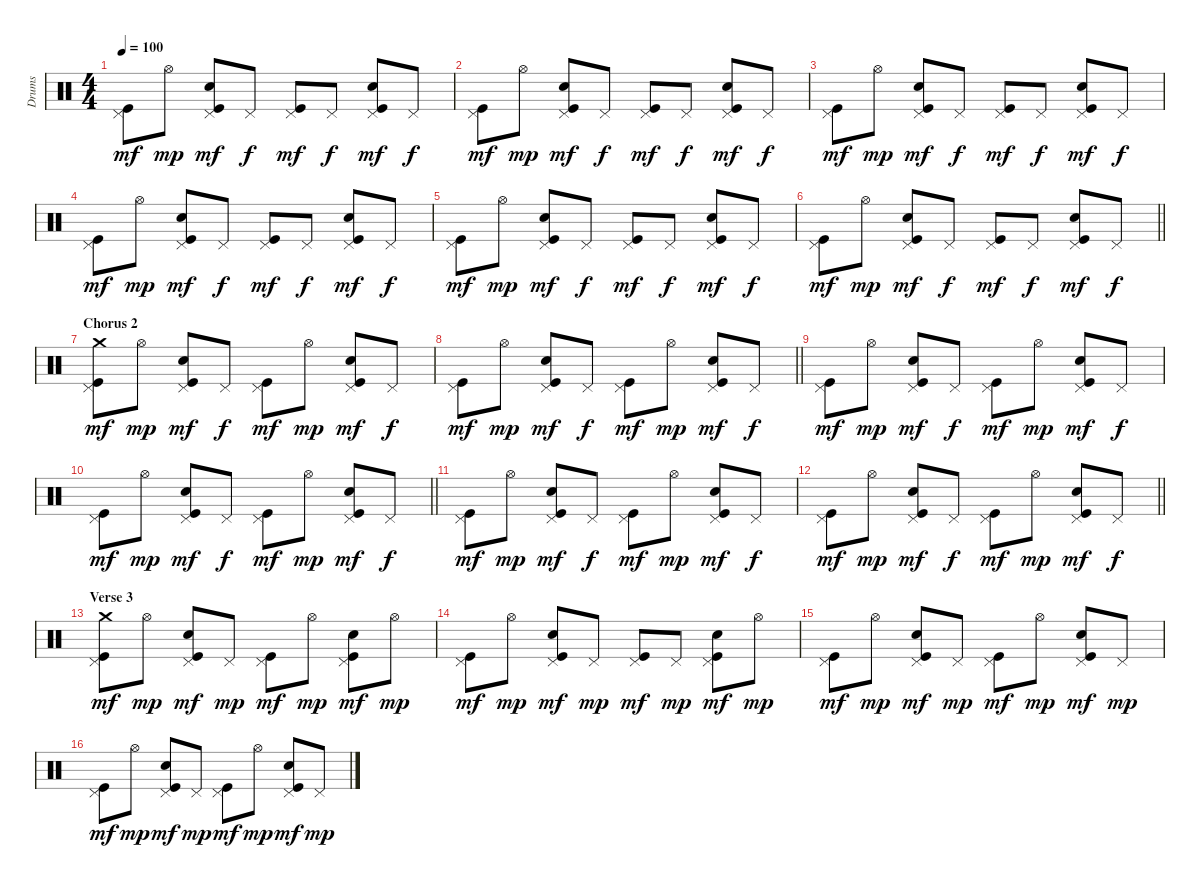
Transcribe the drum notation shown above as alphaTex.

\track ("Drums" "Drums") {instrument percussion}
\staff {score}
\articulation defaults
\ts (4 4)
\tempo 100
\clef neutral
\ks c
("Pedal Hi-Hat (hit)" "Kick (hit)").8{dy mf} "Hi-Hat (open)".8{dy mp} ("Pedal Hi-Hat (hit)" "Electric Snare (hit)" "Kick (hit)").8{dy mf} "Pedal Hi-Hat (hit)".8{dy f} ("Pedal Hi-Hat (hit)" "Kick (hit)").8{dy mf} "Pedal Hi-Hat (hit)".8{dy f} ("Pedal Hi-Hat (hit)" "Electric Snare (hit)" "Kick (hit)").8{dy mf} "Pedal Hi-Hat (hit)".8{dy f} |
("Pedal Hi-Hat (hit)" "Kick (hit)").8{dy mf} "Hi-Hat (open)".8{dy mp} ("Pedal Hi-Hat (hit)" "Electric Snare (hit)" "Kick (hit)").8{dy mf} "Pedal Hi-Hat (hit)".8{dy f} ("Pedal Hi-Hat (hit)" "Kick (hit)").8{dy mf} "Pedal Hi-Hat (hit)".8{dy f} ("Pedal Hi-Hat (hit)" "Electric Snare (hit)" "Kick (hit)").8{dy mf} "Pedal Hi-Hat (hit)".8{dy f} |
("Pedal Hi-Hat (hit)" "Kick (hit)").8{dy mf} "Hi-Hat (open)".8{dy mp} ("Pedal Hi-Hat (hit)" "Electric Snare (hit)" "Kick (hit)").8{dy mf} "Pedal Hi-Hat (hit)".8{dy f} ("Pedal Hi-Hat (hit)" "Kick (hit)").8{dy mf} "Pedal Hi-Hat (hit)".8{dy f} ("Pedal Hi-Hat (hit)" "Electric Snare (hit)" "Kick (hit)").8{dy mf} "Pedal Hi-Hat (hit)".8{dy f} |
("Pedal Hi-Hat (hit)" "Kick (hit)").8{dy mf} "Hi-Hat (open)".8{dy mp} ("Pedal Hi-Hat (hit)" "Electric Snare (hit)" "Kick (hit)").8{dy mf} "Pedal Hi-Hat (hit)".8{dy f} ("Pedal Hi-Hat (hit)" "Kick (hit)").8{dy mf} "Pedal Hi-Hat (hit)".8{dy f} ("Pedal Hi-Hat (hit)" "Electric Snare (hit)" "Kick (hit)").8{dy mf} "Pedal Hi-Hat (hit)".8{dy f} |
("Pedal Hi-Hat (hit)" "Kick (hit)").8{dy mf} "Hi-Hat (open)".8{dy mp} ("Pedal Hi-Hat (hit)" "Electric Snare (hit)" "Kick (hit)").8{dy mf} "Pedal Hi-Hat (hit)".8{dy f} ("Pedal Hi-Hat (hit)" "Kick (hit)").8{dy mf} "Pedal Hi-Hat (hit)".8{dy f} ("Pedal Hi-Hat (hit)" "Electric Snare (hit)" "Kick (hit)").8{dy mf} "Pedal Hi-Hat (hit)".8{dy f} |
\barLineRight lightlight
("Pedal Hi-Hat (hit)" "Kick (hit)").8{dy mf} "Hi-Hat (open)".8{dy mp} ("Pedal Hi-Hat (hit)" "Electric Snare (hit)" "Kick (hit)").8{dy mf} "Pedal Hi-Hat (hit)".8{dy f} ("Pedal Hi-Hat (hit)" "Kick (hit)").8{dy mf} "Pedal Hi-Hat (hit)".8{dy f} ("Pedal Hi-Hat (hit)" "Electric Snare (hit)" "Kick (hit)").8{dy mf} "Pedal Hi-Hat (hit)".8{dy f} |
\section ("" "Chorus 2")
("Pedal Hi-Hat (hit)" "Crash medium (hit)" "Kick (hit)").8{dy mf} "Hi-Hat (open)".8{dy mp} ("Pedal Hi-Hat (hit)" "Electric Snare (hit)" "Kick (hit)").8{dy mf} "Pedal Hi-Hat (hit)".8{dy f} ("Pedal Hi-Hat (hit)" "Kick (hit)").8{dy mf} "Hi-Hat (open)".8{dy mp} ("Pedal Hi-Hat (hit)" "Electric Snare (hit)" "Kick (hit)").8{dy mf} "Pedal Hi-Hat (hit)".8{dy f} |
\barLineRight lightlight
("Pedal Hi-Hat (hit)" "Kick (hit)").8{dy mf} "Hi-Hat (open)".8{dy mp} ("Pedal Hi-Hat (hit)" "Electric Snare (hit)" "Kick (hit)").8{dy mf} "Pedal Hi-Hat (hit)".8{dy f} ("Pedal Hi-Hat (hit)" "Kick (hit)").8{dy mf} "Hi-Hat (open)".8{dy mp} ("Pedal Hi-Hat (hit)" "Electric Snare (hit)" "Kick (hit)").8{dy mf} "Pedal Hi-Hat (hit)".8{dy f} |
("Pedal Hi-Hat (hit)" "Kick (hit)").8{dy mf} "Hi-Hat (open)".8{dy mp} ("Pedal Hi-Hat (hit)" "Electric Snare (hit)" "Kick (hit)").8{dy mf} "Pedal Hi-Hat (hit)".8{dy f} ("Pedal Hi-Hat (hit)" "Kick (hit)").8{dy mf} "Hi-Hat (open)".8{dy mp} ("Pedal Hi-Hat (hit)" "Electric Snare (hit)" "Kick (hit)").8{dy mf} "Pedal Hi-Hat (hit)".8{dy f} |
\barLineRight lightlight
("Pedal Hi-Hat (hit)" "Kick (hit)").8{dy mf} "Hi-Hat (open)".8{dy mp} ("Pedal Hi-Hat (hit)" "Electric Snare (hit)" "Kick (hit)").8{dy mf} "Pedal Hi-Hat (hit)".8{dy f} ("Pedal Hi-Hat (hit)" "Kick (hit)").8{dy mf} "Hi-Hat (open)".8{dy mp} ("Pedal Hi-Hat (hit)" "Electric Snare (hit)" "Kick (hit)").8{dy mf} "Pedal Hi-Hat (hit)".8{dy f} |
("Pedal Hi-Hat (hit)" "Kick (hit)").8{dy mf} "Hi-Hat (open)".8{dy mp} ("Pedal Hi-Hat (hit)" "Electric Snare (hit)" "Kick (hit)").8{dy mf} "Pedal Hi-Hat (hit)".8{dy f} ("Pedal Hi-Hat (hit)" "Kick (hit)").8{dy mf} "Hi-Hat (open)".8{dy mp} ("Pedal Hi-Hat (hit)" "Electric Snare (hit)" "Kick (hit)").8{dy mf} "Pedal Hi-Hat (hit)".8{dy f} |
\barLineRight lightlight
("Pedal Hi-Hat (hit)" "Kick (hit)").8{dy mf} "Hi-Hat (open)".8{dy mp} ("Pedal Hi-Hat (hit)" "Electric Snare (hit)" "Kick (hit)").8{dy mf} "Pedal Hi-Hat (hit)".8{dy f} ("Pedal Hi-Hat (hit)" "Kick (hit)").8{dy mf} "Hi-Hat (open)".8{dy mp} ("Pedal Hi-Hat (hit)" "Electric Snare (hit)" "Kick (hit)").8{dy mf} "Pedal Hi-Hat (hit)".8{dy f} |
\section ("" "Verse 3")
("Pedal Hi-Hat (hit)" "Crash medium (hit)" "Kick (hit)").8{dy mf} "Hi-Hat (open)".8{dy mp} ("Pedal Hi-Hat (hit)" "Electric Snare (hit)" "Kick (hit)").8{dy mf} "Pedal Hi-Hat (hit)".8{dy mp} ("Pedal Hi-Hat (hit)" "Kick (hit)").8{dy mf} "Hi-Hat (open)".8{dy mp} ("Pedal Hi-Hat (hit)" "Electric Snare (hit)" "Kick (hit)").8{dy mf} "Hi-Hat (open)".8{dy mp} |
("Pedal Hi-Hat (hit)" "Kick (hit)").8{dy mf} "Hi-Hat (open)".8{dy mp} ("Pedal Hi-Hat (hit)" "Electric Snare (hit)" "Kick (hit)").8{dy mf} "Pedal Hi-Hat (hit)".8{dy mp} ("Pedal Hi-Hat (hit)" "Kick (hit)").8{dy mf} "Pedal Hi-Hat (hit)".8{dy mp} ("Pedal Hi-Hat (hit)" "Electric Snare (hit)" "Kick (hit)").8{dy mf} "Hi-Hat (open)".8{dy mp} |
("Pedal Hi-Hat (hit)" "Kick (hit)").8{dy mf} "Hi-Hat (open)".8{dy mp} ("Pedal Hi-Hat (hit)" "Electric Snare (hit)" "Kick (hit)").8{dy mf} "Pedal Hi-Hat (hit)".8{dy mp} ("Pedal Hi-Hat (hit)" "Kick (hit)").8{dy mf} "Hi-Hat (open)".8{dy mp} ("Pedal Hi-Hat (hit)" "Electric Snare (hit)" "Kick (hit)").8{dy mf} "Pedal Hi-Hat (hit)".8{dy mp} |
("Pedal Hi-Hat (hit)" "Kick (hit)").8{dy mf} "Hi-Hat (open)".8{dy mp} ("Pedal Hi-Hat (hit)" "Electric Snare (hit)" "Kick (hit)").8{dy mf} "Pedal Hi-Hat (hit)".8{dy mp} ("Pedal Hi-Hat (hit)" "Kick (hit)").8{dy mf} "Hi-Hat (open)".8{dy mp} ("Pedal Hi-Hat (hit)" "Electric Snare (hit)" "Kick (hit)").8{dy mf} "Pedal Hi-Hat (hit)".8{dy mp}
